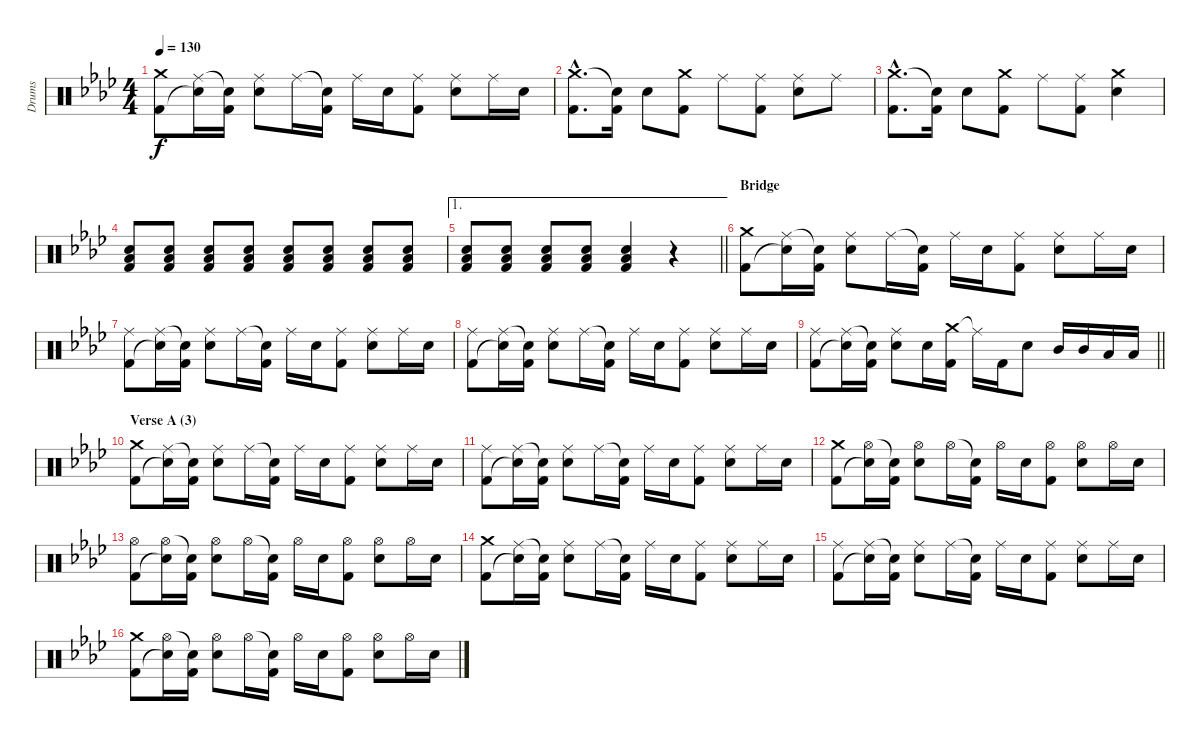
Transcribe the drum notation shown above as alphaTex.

\track ("Drums" "Drums") {instrument percussion}
\staff {score}
\articulation defaults
\ts (4 4)
\tempo 130
\clef neutral
\ks fminor
("Crash medium (hit)" "Kick (hit) 2").8{dy f} ("Ride (middle)" "Snare (hit)"{t}).16 ("Snare (hit)"{t} "Kick (hit) 2").16 ("Ride (middle)" "Electric Snare (hit)").8 "Ride (middle)".16 ("Snare (hit)"{t} "Kick (hit) 2").16 "Ride (middle)".16 "Electric Snare (hit)".16 ("Ride (middle)" "Kick (hit) 2").8 ("Ride (middle)" "Electric Snare (hit)").8 "Ride (middle)".16 "Electric Snare (hit)".16 |
("Crash medium (hit)"{hac} "Kick (hit) 2"{hac}).8{d} ("Snare (hit)"{t} "Kick (hit) 2").16 "Electric Snare (hit)".8 ("Crash medium (hit)" "Kick (hit) 2").8 "Ride (middle)".8 ("Ride (middle)" "Kick (hit) 2").8 ("Ride (middle)" "Electric Snare (hit)").8 "Ride (middle)".8 |
("Crash medium (hit)"{hac} "Kick (hit) 2"{hac}).8{d} ("Snare (hit)"{t} "Kick (hit) 2").16 "Electric Snare (hit)".8 ("Crash medium (hit)" "Kick (hit) 2").8 "Ride (middle)".8 ("Ride (middle)" "Kick (hit) 2").8 ("Crash medium (hit)" "Electric Snare (hit)").4 |
("Electric Snare (hit)" "Low Floor Tom (hit)" "Kick (hit) 2").8 ("Electric Snare (hit)" "Low Floor Tom (hit)" "Kick (hit) 2").8 ("Electric Snare (hit)" "Low Floor Tom (hit)" "Kick (hit) 2").8 ("Electric Snare (hit)" "Low Floor Tom (hit)" "Kick (hit) 2").8 ("Electric Snare (hit)" "Low Floor Tom (hit)" "Kick (hit) 2").8 ("Electric Snare (hit)" "Low Floor Tom (hit)" "Kick (hit) 2").8 ("Electric Snare (hit)" "Low Floor Tom (hit)" "Kick (hit) 2").8 ("Electric Snare (hit)" "Low Floor Tom (hit)" "Kick (hit) 2").8 |
\ae 1
\barLineRight lightlight
("Electric Snare (hit)" "Low Floor Tom (hit)" "Kick (hit) 2").8 ("Electric Snare (hit)" "Low Floor Tom (hit)" "Kick (hit) 2").8 ("Electric Snare (hit)" "Low Floor Tom (hit)" "Kick (hit) 2").8 ("Electric Snare (hit)" "Low Floor Tom (hit)" "Kick (hit) 2").8 ("Electric Snare (hit)" "Low Floor Tom (hit)" "Kick (hit) 2").4 r.4 |
\section ("" "Bridge")
("Crash medium (hit)" "Kick (hit) 2").8 ("Ride (middle)" "Snare (hit)"{t}).16 ("Snare (hit)"{t} "Kick (hit) 2").16 ("Ride (middle)" "Electric Snare (hit)").8 "Ride (middle)".16 ("Snare (hit)"{t} "Kick (hit) 2").16 "Ride (middle)".16 "Electric Snare (hit)".16 ("Ride (middle)" "Kick (hit) 2").8 ("Ride (middle)" "Electric Snare (hit)").8 "Ride (middle)".16 "Electric Snare (hit)".16 |
("Ride (middle)" "Kick (hit) 2").8 ("Ride (middle)" "Snare (hit)"{t}).16 ("Snare (hit)"{t} "Kick (hit) 2").16 ("Ride (middle)" "Electric Snare (hit)").8 "Ride (middle)".16 ("Snare (hit)"{t} "Kick (hit) 2").16 "Ride (middle)".16 "Electric Snare (hit)".16 ("Ride (middle)" "Kick (hit) 2").8 ("Ride (middle)" "Electric Snare (hit)").8 "Ride (middle)".16 "Electric Snare (hit)".16 |
("Ride (middle)" "Kick (hit) 2").8 ("Ride (middle)" "Snare (hit)"{t}).16 ("Snare (hit)"{t} "Kick (hit) 2").16 ("Ride (middle)" "Electric Snare (hit)").8 "Ride (middle)".16 ("Snare (hit)"{t} "Kick (hit) 2").16 "Ride (middle)".16 "Electric Snare (hit)".16 ("Ride (middle)" "Kick (hit) 2").8 ("Ride (middle)" "Electric Snare (hit)").8 "Ride (middle)".16 "Electric Snare (hit)".16 |
\barLineRight lightlight
("Ride (middle)" "Kick (hit) 2").8 ("Ride (middle)" "Snare (hit)"{t}).16 ("Snare (hit)"{t} "Kick (hit) 2").16 ("Ride (middle)" "Electric Snare (hit)").8 "Electric Snare (hit)".16 ("Crash medium (hit)" "Kick (hit) 2").16 "Ride (middle)"{t}.16 "Kick (hit) 2".16 "Electric Snare (hit)".8 "Mid Tom (hit)".16 "Mid Tom (hit)".16 "Low Floor Tom (hit)".16 "Low Floor Tom (hit)".16 |
\section ("" "Verse A (3)")
("Crash medium (hit)" "Kick (hit) 2").8 ("Ride (middle)" "Snare (hit)"{t}).16 ("Snare (hit)"{t} "Kick (hit) 2").16 ("Ride (middle)" "Electric Snare (hit)").8 "Ride (middle)".16 ("Snare (hit)"{t} "Kick (hit) 2").16 "Ride (middle)".16 "Electric Snare (hit)".16 ("Ride (middle)" "Kick (hit) 2").8 ("Ride (middle)" "Electric Snare (hit)").8 "Ride (middle)".16 "Electric Snare (hit)".16 |
("Ride (middle)" "Kick (hit) 2").8 ("Ride (middle)" "Snare (hit)"{t}).16 ("Snare (hit)"{t} "Kick (hit) 2").16 ("Ride (middle)" "Electric Snare (hit)").8 "Ride (middle)".16 ("Snare (hit)"{t} "Kick (hit) 2").16 "Ride (middle)".16 "Electric Snare (hit)".16 ("Ride (middle)" "Kick (hit) 2").8 ("Ride (middle)" "Electric Snare (hit)").8 "Ride (middle)".16 "Electric Snare (hit)".16 |
("Crash medium (hit)" "Kick (hit) 2").8 ("Hi-Hat (open)" "Snare (hit)"{t}).16 ("Snare (hit)"{t} "Kick (hit) 2").16 ("Hi-Hat (open)" "Electric Snare (hit)").8 "Hi-Hat (open)".16 ("Snare (hit)"{t} "Kick (hit) 2").16 "Hi-Hat (open)".16 "Electric Snare (hit)".16 ("Hi-Hat (open)" "Kick (hit) 2").8 ("Hi-Hat (open)" "Electric Snare (hit)").8 "Hi-Hat (open)".16 "Electric Snare (hit)".16 |
("Hi-Hat (open)" "Kick (hit) 2").8 ("Hi-Hat (open)" "Snare (hit)"{t}).16 ("Snare (hit)"{t} "Kick (hit) 2").16 ("Hi-Hat (open)" "Electric Snare (hit)").8 "Hi-Hat (open)".16 ("Snare (hit)"{t} "Kick (hit) 2").16 "Hi-Hat (open)".16 "Electric Snare (hit)".16 ("Hi-Hat (open)" "Kick (hit) 2").8 ("Hi-Hat (open)" "Electric Snare (hit)").8 "Hi-Hat (open)".16 "Electric Snare (hit)".16 |
("Crash medium (hit)" "Kick (hit) 2").8 ("Ride (middle)" "Snare (hit)"{t}).16 ("Snare (hit)"{t} "Kick (hit) 2").16 ("Ride (middle)" "Electric Snare (hit)").8 "Ride (middle)".16 ("Snare (hit)"{t} "Kick (hit) 2").16 "Ride (middle)".16 "Electric Snare (hit)".16 ("Ride (middle)" "Kick (hit) 2").8 ("Ride (middle)" "Electric Snare (hit)").8 "Ride (middle)".16 "Electric Snare (hit)".16 |
("Ride (middle)" "Kick (hit) 2").8 ("Ride (middle)" "Snare (hit)"{t}).16 ("Snare (hit)"{t} "Kick (hit) 2").16 ("Ride (middle)" "Electric Snare (hit)").8 "Ride (middle)".16 ("Snare (hit)"{t} "Kick (hit) 2").16 "Ride (middle)".16 "Electric Snare (hit)".16 ("Ride (middle)" "Kick (hit) 2").8 ("Ride (middle)" "Electric Snare (hit)").8 "Ride (middle)".16 "Electric Snare (hit)".16 |
("Crash medium (hit)" "Kick (hit) 2").8 ("Hi-Hat (open)" "Snare (hit)"{t}).16 ("Snare (hit)"{t} "Kick (hit) 2").16 ("Hi-Hat (open)" "Electric Snare (hit)").8 "Hi-Hat (open)".16 ("Snare (hit)"{t} "Kick (hit) 2").16 "Hi-Hat (open)".16 "Electric Snare (hit)".16 ("Hi-Hat (open)" "Kick (hit) 2").8 ("Hi-Hat (open)" "Electric Snare (hit)").8 "Hi-Hat (open)".16 "Electric Snare (hit)".16
